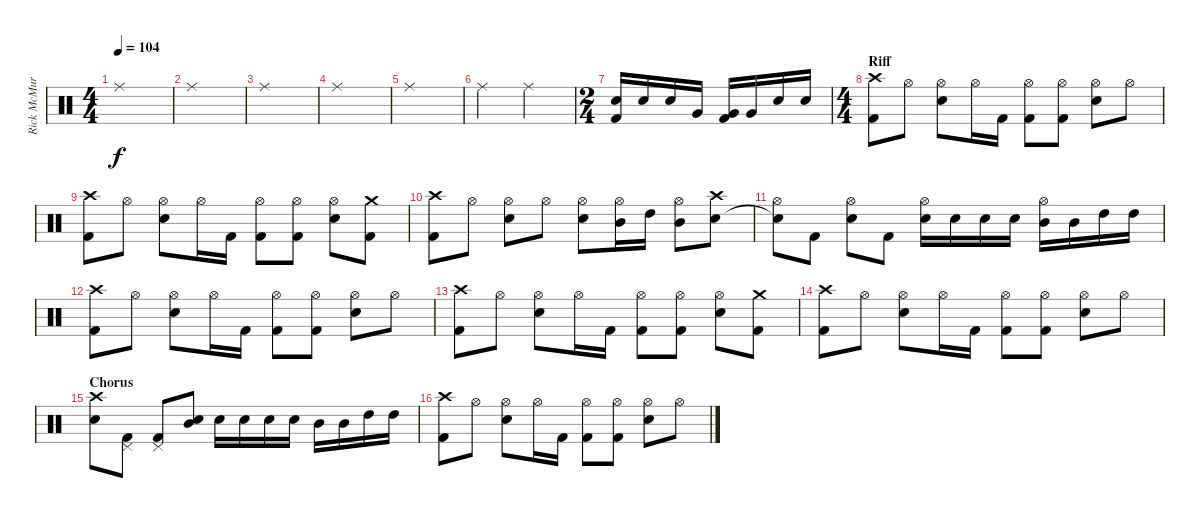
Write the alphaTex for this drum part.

\track ("Rick McMurray" "Rick McMur") {instrument percussion}
\staff {score}
\articulation defaults
\ts (4 4)
\tempo 104
\clef neutral
\ks c "Ride (middle)".1{dy f}
|
"Ride (middle)".1 |
"Ride (middle)".1 |
"Ride (middle)".1 |
"Ride (middle)".1 |
"Ride (middle)".2 "Ride (middle)".2 |
\ts (2 4)
("Snare (hit) 2" "Kick (hit) 2").16 "Snare (hit) 2".16 "Snare (hit) 2".16 "Very Low Tom (hit)".16 ("Very Low Tom (hit)" "Kick (hit) 2").16 "Very Low Tom (hit)".16 "Snare (hit) 2".16 "Snare (hit) 2".16 |
\ts (4 4)
\section ("" "Riff")
("Crash high (hit)" "Kick (hit) 2").8 "Hi-Hat (open)".8 ("Hi-Hat (open)" "Snare (hit) 2").8 "Hi-Hat (open)".16 "Kick (hit) 2".16 ("Hi-Hat (open)" "Kick (hit) 2").8 ("Hi-Hat (open)" "Kick (hit) 2").8 ("Hi-Hat (open)" "Snare (hit) 2").8 "Hi-Hat (open)".8 |
("Crash high (hit)" "Kick (hit) 2").8 "Hi-Hat (open)".8 ("Hi-Hat (open)" "Snare (hit) 2").8 "Hi-Hat (open)".16 "Kick (hit) 2".16 ("Hi-Hat (open)" "Kick (hit) 2").8 ("Hi-Hat (open)" "Kick (hit) 2").8 ("Hi-Hat (open)" "Snare (hit) 2").8 ("Crash medium (hit)" "Kick (hit) 2").8 |
("Crash high (hit)" "Kick (hit) 2").8 "Hi-Hat (open)".8 ("Hi-Hat (open)" "Snare (hit) 2").8 "Hi-Hat (open)".8 ("Hi-Hat (open)" "Snare (hit) 2").8 ("Hi-Hat (open)" "Mid Tom (hit)").16 "High Tom (hit)".16 ("Hi-Hat (open)" "Mid Tom (hit)").8 ("Crash high (hit)" "Snare (hit) 2").8 |
("Hi-Hat (open)" "Snare (hit)"{t}).8 "Kick (hit) 2".8 ("Hi-Hat (open)" "Snare (hit) 2").8 "Kick (hit) 2".8 ("Snare (hit) 2" "Hi-Hat (open)").16 "Snare (hit) 2".16 "Snare (hit) 2".16 "Snare (hit) 2".16 ("Mid Tom (hit)" "Hi-Hat (open)").16 "Mid Tom (hit)".16 "High Tom (hit)".16 "High Tom (hit)".16 |
("Crash high (hit)" "Kick (hit) 2").8 "Hi-Hat (open)".8 ("Hi-Hat (open)" "Snare (hit) 2").8 "Hi-Hat (open)".16 "Kick (hit) 2".16 ("Hi-Hat (open)" "Kick (hit) 2").8 ("Hi-Hat (open)" "Kick (hit) 2").8 ("Hi-Hat (open)" "Snare (hit) 2").8 "Hi-Hat (open)".8 |
("Crash high (hit)" "Kick (hit) 2").8 "Hi-Hat (open)".8 ("Hi-Hat (open)" "Snare (hit) 2").8 "Hi-Hat (open)".16 "Kick (hit) 2".16 ("Hi-Hat (open)" "Kick (hit) 2").8 ("Hi-Hat (open)" "Kick (hit) 2").8 ("Hi-Hat (open)" "Snare (hit) 2").8 ("Crash medium (hit)" "Kick (hit) 2").8 |
("Crash high (hit)" "Kick (hit) 2").8 "Hi-Hat (open)".8 ("Hi-Hat (open)" "Snare (hit) 2").8 "Hi-Hat (open)".16 "Kick (hit) 2".16 ("Hi-Hat (open)" "Kick (hit) 2").8 ("Hi-Hat (open)" "Kick (hit) 2").8 ("Hi-Hat (open)" "Snare (hit) 2").8 "Hi-Hat (open)".8 |
\section ("" "Chorus")
("Crash high (hit)" "Snare (hit) 2").8 ("Pedal Hi-Hat (hit)" "Kick (hit) 2").8 ("Pedal Hi-Hat (hit)" "Kick (hit) 2").8 ("Mid Tom (hit)" "Snare (hit) 2").8 "Snare (hit) 2".16 "Snare (hit) 2".16 "Snare (hit) 2".16 "Snare (hit) 2".16 "Mid Tom (hit)".16 "Mid Tom (hit)".16 "High Tom (hit)".16 "High Tom (hit)".16 |
("Crash high (hit)" "Kick (hit) 2").8 "Hi-Hat (open)".8 ("Hi-Hat (open)" "Snare (hit) 2").8 "Hi-Hat (open)".16 "Kick (hit) 2".16 ("Hi-Hat (open)" "Kick (hit) 2").8 ("Hi-Hat (open)" "Kick (hit) 2").8 ("Hi-Hat (open)" "Snare (hit) 2").8 "Hi-Hat (open)".8
